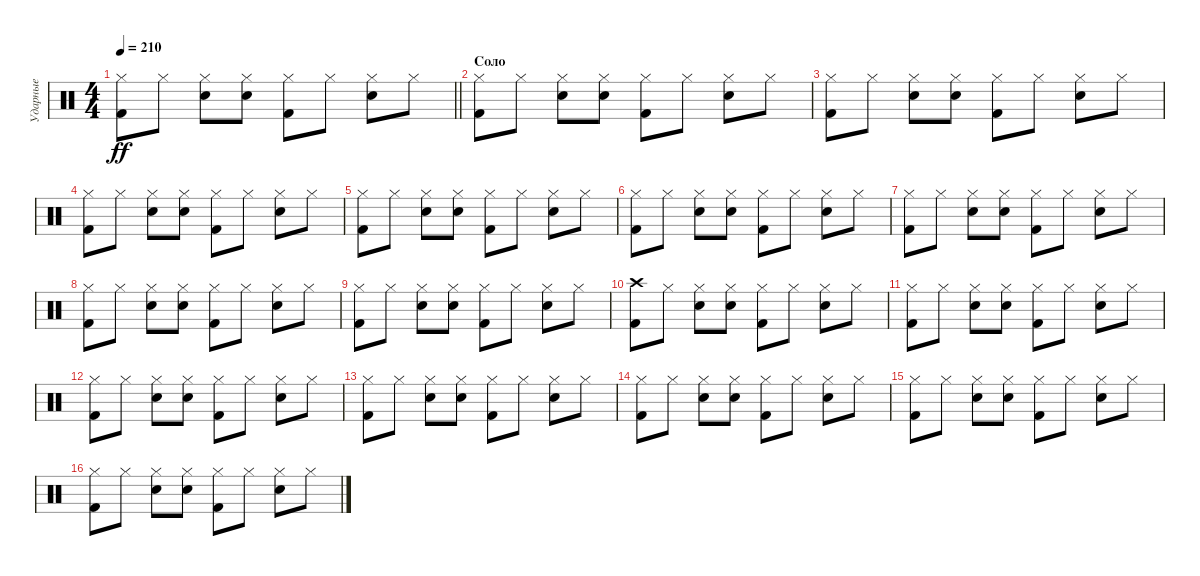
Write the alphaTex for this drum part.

\track ("Ударные" "Ударные") {instrument percussion}
\staff {score}
\articulation defaults
\ts (4 4)
\tempo 210
\clef neutral
\barLineRight lightlight
\ks c
("Hi-Hat (closed)" "Kick (hit) 2").8{dy ff} "Hi-Hat (closed)".8 ("Hi-Hat (closed)" "Snare (hit) 2").8 ("Hi-Hat (closed)" "Snare (hit) 2").8 ("Hi-Hat (closed)" "Kick (hit) 2").8 "Hi-Hat (closed)".8 ("Hi-Hat (closed)" "Snare (hit) 2").8 "Hi-Hat (closed)".8 |
\section ("" "Соло")
("Hi-Hat (closed)" "Kick (hit) 2").8 "Hi-Hat (closed)".8 ("Hi-Hat (closed)" "Snare (hit) 2").8 ("Hi-Hat (closed)" "Snare (hit) 2").8 ("Hi-Hat (closed)" "Kick (hit) 2").8 "Hi-Hat (closed)".8 ("Hi-Hat (closed)" "Snare (hit) 2").8 "Hi-Hat (closed)".8 |
("Hi-Hat (closed)" "Kick (hit) 2").8 "Hi-Hat (closed)".8 ("Hi-Hat (closed)" "Snare (hit) 2").8 ("Hi-Hat (closed)" "Snare (hit) 2").8 ("Hi-Hat (closed)" "Kick (hit) 2").8 "Hi-Hat (closed)".8 ("Hi-Hat (closed)" "Snare (hit) 2").8 "Hi-Hat (closed)".8 |
("Hi-Hat (closed)" "Kick (hit) 2").8 "Hi-Hat (closed)".8 ("Hi-Hat (closed)" "Snare (hit) 2").8 ("Hi-Hat (closed)" "Snare (hit) 2").8 ("Hi-Hat (closed)" "Kick (hit) 2").8 "Hi-Hat (closed)".8 ("Hi-Hat (closed)" "Snare (hit) 2").8 "Hi-Hat (closed)".8 |
("Hi-Hat (closed)" "Kick (hit) 2").8 "Hi-Hat (closed)".8 ("Hi-Hat (closed)" "Snare (hit) 2").8 ("Hi-Hat (closed)" "Snare (hit) 2").8 ("Hi-Hat (closed)" "Kick (hit) 2").8 "Hi-Hat (closed)".8 ("Hi-Hat (closed)" "Snare (hit) 2").8 "Hi-Hat (closed)".8 |
("Hi-Hat (closed)" "Kick (hit) 2").8 "Hi-Hat (closed)".8 ("Hi-Hat (closed)" "Snare (hit) 2").8 ("Hi-Hat (closed)" "Snare (hit) 2").8 ("Hi-Hat (closed)" "Kick (hit) 2").8 "Hi-Hat (closed)".8 ("Hi-Hat (closed)" "Snare (hit) 2").8 "Hi-Hat (closed)".8 |
("Hi-Hat (closed)" "Kick (hit) 2").8 "Hi-Hat (closed)".8 ("Hi-Hat (closed)" "Snare (hit) 2").8 ("Hi-Hat (closed)" "Snare (hit) 2").8 ("Hi-Hat (closed)" "Kick (hit) 2").8 "Hi-Hat (closed)".8 ("Hi-Hat (closed)" "Snare (hit) 2").8 "Hi-Hat (closed)".8 |
("Hi-Hat (closed)" "Kick (hit) 2").8 "Hi-Hat (closed)".8 ("Hi-Hat (closed)" "Snare (hit) 2").8 ("Hi-Hat (closed)" "Snare (hit) 2").8 ("Hi-Hat (closed)" "Kick (hit) 2").8 "Hi-Hat (closed)".8 ("Hi-Hat (closed)" "Snare (hit) 2").8 "Hi-Hat (closed)".8 |
("Hi-Hat (closed)" "Kick (hit) 2").8 "Hi-Hat (closed)".8 ("Hi-Hat (closed)" "Snare (hit) 2").8 ("Hi-Hat (closed)" "Snare (hit) 2").8 ("Hi-Hat (closed)" "Kick (hit) 2").8 "Hi-Hat (closed)".8 ("Hi-Hat (closed)" "Snare (hit) 2").8 "Hi-Hat (closed)".8 |
("Crash high (hit)" "Kick (hit) 2").8 "Hi-Hat (closed)".8 ("Hi-Hat (closed)" "Snare (hit) 2").8 ("Hi-Hat (closed)" "Snare (hit) 2").8 ("Hi-Hat (closed)" "Kick (hit) 2").8 "Hi-Hat (closed)".8 ("Hi-Hat (closed)" "Snare (hit) 2").8 "Hi-Hat (closed)".8 |
("Hi-Hat (closed)" "Kick (hit) 2").8 "Hi-Hat (closed)".8 ("Hi-Hat (closed)" "Snare (hit) 2").8 ("Hi-Hat (closed)" "Snare (hit) 2").8 ("Hi-Hat (closed)" "Kick (hit) 2").8 "Hi-Hat (closed)".8 ("Hi-Hat (closed)" "Snare (hit) 2").8 "Hi-Hat (closed)".8 |
("Hi-Hat (closed)" "Kick (hit) 2").8 "Hi-Hat (closed)".8 ("Hi-Hat (closed)" "Snare (hit) 2").8 ("Hi-Hat (closed)" "Snare (hit) 2").8 ("Hi-Hat (closed)" "Kick (hit) 2").8 "Hi-Hat (closed)".8 ("Hi-Hat (closed)" "Snare (hit) 2").8 "Hi-Hat (closed)".8 |
("Hi-Hat (closed)" "Kick (hit) 2").8 "Hi-Hat (closed)".8 ("Hi-Hat (closed)" "Snare (hit) 2").8 ("Hi-Hat (closed)" "Snare (hit) 2").8 ("Hi-Hat (closed)" "Kick (hit) 2").8 "Hi-Hat (closed)".8 ("Hi-Hat (closed)" "Snare (hit) 2").8 "Hi-Hat (closed)".8 |
("Hi-Hat (closed)" "Kick (hit) 2").8 "Hi-Hat (closed)".8 ("Hi-Hat (closed)" "Snare (hit) 2").8 ("Hi-Hat (closed)" "Snare (hit) 2").8 ("Hi-Hat (closed)" "Kick (hit) 2").8 "Hi-Hat (closed)".8 ("Hi-Hat (closed)" "Snare (hit) 2").8 "Hi-Hat (closed)".8 |
("Hi-Hat (closed)" "Kick (hit) 2").8 "Hi-Hat (closed)".8 ("Hi-Hat (closed)" "Snare (hit) 2").8 ("Hi-Hat (closed)" "Snare (hit) 2").8 ("Hi-Hat (closed)" "Kick (hit) 2").8 "Hi-Hat (closed)".8 ("Hi-Hat (closed)" "Snare (hit) 2").8 "Hi-Hat (closed)".8 |
("Hi-Hat (closed)" "Kick (hit) 2").8 "Hi-Hat (closed)".8 ("Hi-Hat (closed)" "Snare (hit) 2").8 ("Hi-Hat (closed)" "Snare (hit) 2").8 ("Hi-Hat (closed)" "Kick (hit) 2").8 "Hi-Hat (closed)".8 ("Hi-Hat (closed)" "Snare (hit) 2").8 "Hi-Hat (closed)".8
